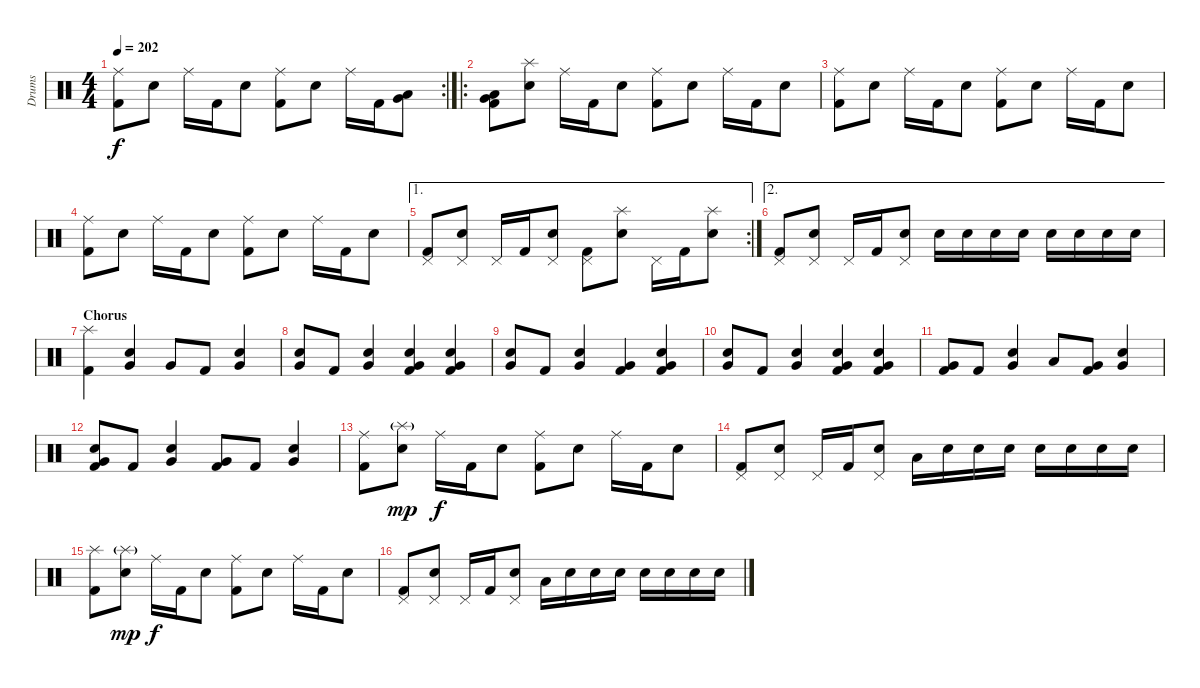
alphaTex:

\track ("Drums" "Drums") {instrument percussion}
\staff {score}
\articulation defaults
\rc 2
\ts (4 4)
\tempo 202
\clef neutral
\ks c
("Ride (middle)" "Kick (hit) 2").8{dy f} "Electric Snare (hit)".8 "Ride (middle)".16 "Kick (hit) 2".16 "Electric Snare (hit)".8 ("Ride (middle)" "Kick (hit) 2").8 "Electric Snare (hit)".8 "Ride (middle)".16 "Kick (hit) 2".16 ("Low Tom (hit)" "Very Low Tom (hit)").8 |
\ro
("Low Tom (hit)" "Very Low Tom (hit)" "Kick (hit) 2").8 ("Splash (hit)" "Electric Snare (hit)").8 "Ride (middle)".16 "Kick (hit) 2".16 "Electric Snare (hit)".8 ("Ride (middle)" "Kick (hit) 2").8 "Electric Snare (hit)".8 "Ride (middle)".16 "Kick (hit) 2".16 "Electric Snare (hit)".8 |
("Ride (middle)" "Kick (hit) 2").8 "Electric Snare (hit)".8 "Ride (middle)".16 "Kick (hit) 2".16 "Electric Snare (hit)".8 ("Ride (middle)" "Kick (hit) 2").8 "Electric Snare (hit)".8 "Ride (middle)".16 "Kick (hit) 2".16 "Electric Snare (hit)".8 |
("Ride (middle)" "Kick (hit) 2").8 "Electric Snare (hit)".8 "Ride (middle)".16 "Kick (hit) 2".16 "Electric Snare (hit)".8 ("Ride (middle)" "Kick (hit) 2").8 "Electric Snare (hit)".8 "Ride (middle)".16 "Kick (hit) 2".16 "Electric Snare (hit)".8 |
\ae 1
\rc 2
("Pedal Hi-Hat (hit)" "Kick (hit) 2").8 ("Pedal Hi-Hat (hit)" "Electric Snare (hit)").8 "Pedal Hi-Hat (hit)".16 "Kick (hit) 2".16 ("Pedal Hi-Hat (hit)" "Electric Snare (hit)").8 ("Pedal Hi-Hat (hit)" "Kick (hit) 2").8 ("Splash (hit)" "Electric Snare (hit)").8 "Pedal Hi-Hat (hit)".16 "Kick (hit) 2".16 ("Splash (hit)" "Electric Snare (hit)").8 |
\ae 2
("Pedal Hi-Hat (hit)" "Kick (hit) 2").8 ("Pedal Hi-Hat (hit)" "Electric Snare (hit)").8 "Pedal Hi-Hat (hit)".16 "Kick (hit) 2".16 ("Pedal Hi-Hat (hit)" "Electric Snare (hit)").8 "Electric Snare (hit)".16 "Electric Snare (hit)".16 "Electric Snare (hit)".16 "Electric Snare (hit)".16 "Electric Snare (hit)".16 "Electric Snare (hit)".16 "Electric Snare (hit)".16 "Electric Snare (hit)".16 |
\section ("" "Chorus")
("Splash (hit)" "Kick (hit) 2").4 ("Very Low Tom (hit)" "Electric Snare (hit)").4 "Very Low Tom (hit)".8 "Kick (hit) 2".8 ("Very Low Tom (hit)" "Electric Snare (hit)").4 |
("Very Low Tom (hit)" "Electric Snare (hit)").8 "Kick (hit) 2".8 ("Very Low Tom (hit)" "Electric Snare (hit)").4 ("Very Low Tom (hit)" "Electric Snare (hit)" "Kick (hit) 2").4 ("Very Low Tom (hit)" "Electric Snare (hit)" "Kick (hit) 2").4 |
("Very Low Tom (hit)" "Electric Snare (hit)").8 "Kick (hit) 2".8 ("Very Low Tom (hit)" "Electric Snare (hit)").4 ("Very Low Tom (hit)" "Kick (hit) 2").4 ("Very Low Tom (hit)" "Electric Snare (hit)" "Kick (hit) 2").4 |
("Very Low Tom (hit)" "Electric Snare (hit)").8 "Kick (hit) 2".8 ("Very Low Tom (hit)" "Electric Snare (hit)").4 ("Very Low Tom (hit)" "Electric Snare (hit)" "Kick (hit) 2").4 ("Very Low Tom (hit)" "Electric Snare (hit)" "Kick (hit) 2").4 |
("Very Low Tom (hit)" "Kick (hit) 2").8 "Kick (hit) 2".8 ("Very Low Tom (hit)" "Electric Snare (hit)").4 "Low Tom (hit)".8 ("Very Low Tom (hit)" "Kick (hit) 2").8 ("Very Low Tom (hit)" "Electric Snare (hit)").4 |
("Very Low Tom (hit)" "Electric Snare (hit)" "Kick (hit) 2").8 "Kick (hit) 2".8 ("Very Low Tom (hit)" "Electric Snare (hit)").4 ("Very Low Tom (hit)" "Kick (hit) 2").8 "Kick (hit) 2".8 ("Very Low Tom (hit)" "Electric Snare (hit)").4 |
("Ride (middle)" "Kick (hit) 2").8 ("Splash (hit)"{g} "Electric Snare (hit)").8{dy mp} "Ride (middle)".16{dy f} "Kick (hit) 2".16 "Electric Snare (hit)".8 ("Ride (middle)" "Kick (hit) 2").8 "Electric Snare (hit)".8 "Ride (middle)".16 "Kick (hit) 2".16 "Electric Snare (hit)".8 |
("Pedal Hi-Hat (hit)" "Kick (hit) 2").8 ("Pedal Hi-Hat (hit)" "Electric Snare (hit)").8 "Pedal Hi-Hat (hit)".16 "Kick (hit) 2".16 ("Pedal Hi-Hat (hit)" "Electric Snare (hit)").8 "Low Tom (hit)".16 "Electric Snare (hit)".16 "Electric Snare (hit)".16 "Electric Snare (hit)".16 "Electric Snare (hit)".16 "Electric Snare (hit)".16 "Electric Snare (hit)".16 "Electric Snare (hit)".16 |
("Splash (hit)" "Kick (hit) 2").8 ("Splash (hit)"{g} "Electric Snare (hit)").8{dy mp} "Ride (middle)".16{dy f} "Kick (hit) 2".16 "Electric Snare (hit)".8 ("Ride (middle)" "Kick (hit) 2").8 "Electric Snare (hit)".8 "Ride (middle)".16 "Kick (hit) 2".16 "Electric Snare (hit)".8 |
("Pedal Hi-Hat (hit)" "Kick (hit) 2").8 ("Pedal Hi-Hat (hit)" "Electric Snare (hit)").8 "Pedal Hi-Hat (hit)".16 "Kick (hit) 2".16 ("Pedal Hi-Hat (hit)" "Electric Snare (hit)").8 "Low Tom (hit)".16 "Electric Snare (hit)".16 "Electric Snare (hit)".16 "Electric Snare (hit)".16 "Electric Snare (hit)".16 "Electric Snare (hit)".16 "Electric Snare (hit)".16 "Electric Snare (hit)".16
